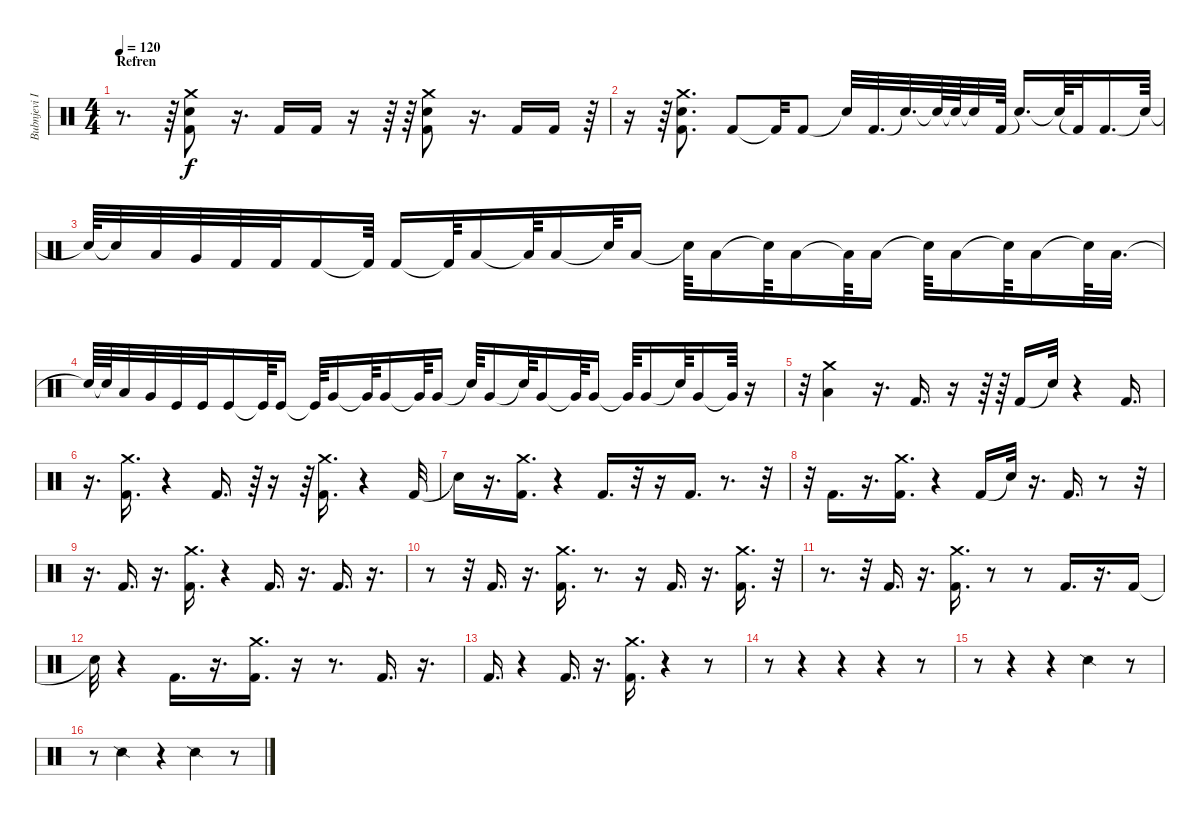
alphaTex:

\track ("Bubnjevi Ipe Ivandic" "Bubnjevi I") {instrument percussion}
\staff {score}
\articulation defaults
\ts (4 4)
\section ("" "Refren")
\tempo 120
\clef neutral
\ks c
r.8{d dy f} r.64 ("Kick (hit) 2" "Snare (hit) 2" "Crash medium (hit)").8 r.16{d} "Kick (hit) 2".16 "Kick (hit) 2".16 r.16 r.64 r.64 ("Kick (hit) 2" "Snare (hit) 2" "Crash medium (hit)").8 r.16{d} "Kick (hit) 2".16 "Kick (hit) 2".16 r.64 |
r.16 r.64 ("Kick (hit) 2" "Snare (hit) 2" "Crash medium (hit)").8{d} "Kick (hit) 2".8 "Kick (hit) 2"{t}.32 "Kick (hit) 2".8 "Snare (hit)"{t}.32 "Kick (hit) 2".32{d} "Snare (hit)"{t}.32{d} "Snare (hit)"{t}.64 "Snare (hit)"{t}.64 "Snare (hit)"{t}.32 "Kick (hit) 2".64 "Snare (hit)"{t}.16{d} "Snare (hit)"{t}.64 "Kick (hit) 2"{t}.32 "Kick (hit) 2".16{d} "Snare (hit)"{t}.64 |
"Snare (hit)"{t}.64 "Snare (hit)"{t}.32 "Low Tom (hit)".32 "Very Low Tom (hit)".32 "Kick (hit) 2".32 "Kick (hit) 2".32 "Kick (hit) 2".16 "Kick (hit) 2"{t}.64 "Kick (hit) 2".16 "Kick (hit) 2"{t}.64 "Low Tom (hit)".16 "Low Tom (hit)"{t}.64 "Low Tom (hit)".16 "Snare (hit)"{t}.64 "Low Tom (hit)".16 "Snare (hit)"{t}.64 "Low Tom (hit)".16 "Snare (hit)"{t}.64 "Low Tom (hit)".16 "Low Tom (hit)"{t}.64 "Low Tom (hit)".16 "Snare (hit)"{t}.64 "Low Tom (hit)".16 "Snare (hit)"{t}.64 "Low Tom (hit)".16 "Snare (hit)"{t}.64 "Low Tom (hit)".32{d} |
"Snare (hit)"{t}.64 "Snare (hit)"{t}.64 "Low Floor Tom (hit)".32 "Very Low Tom (hit)".32 "Kick (hit)".32 "Kick (hit)".32 "Kick (hit)".16 "Kick (hit)"{t}.64 "Kick (hit)".16 "Kick (hit)"{t}.64 "Very Low Tom (hit)".16 "Very Low Tom (hit)"{t}.64 "Very Low Tom (hit)".16 "Very Low Tom (hit)"{t}.64 "Very Low Tom (hit)".16 "Snare (hit)"{t}.64 "Very Low Tom (hit)".16 "Snare (hit)"{t}.64 "Very Low Tom (hit)".16 "Very Low Tom (hit)"{t}.64 "Very Low Tom (hit)".16 "Very Low Tom (hit)"{t}.64 "Very Low Tom (hit)".16 "Snare (hit)"{t}.64 "Very Low Tom (hit)".16 "Very Low Tom (hit)"{t}.64 r.16 |
r.32 ("Low Tom (hit)" "Crash medium (hit)").4 r.16{d} "Kick (hit) 2".16{d} r.16 r.64 r.64 "Kick (hit) 2".16 "Snare (hit)"{t}.32 r.4 "Kick (hit) 2".16{d} |
r.16{d} ("Kick (hit) 2" "Crash medium (hit)").16{d} r.4 "Kick (hit) 2".16{d} r.64 r.16 r.64 ("Kick (hit) 2" "Crash medium (hit)").16{d} r.4 "Kick (hit) 2".32 |
"Snare (hit)"{t}.16 r.16{d} ("Kick (hit) 2" "Crash medium (hit)").16{d} r.4 "Kick (hit) 2".16{d} r.32 r.16 "Kick (hit) 2".16{d} r.8{d} r.32 |
r.32 "Kick (hit) 2".16{d} r.16{d} ("Kick (hit) 2" "Crash medium (hit)").16{d} r.4 "Kick (hit) 2".16 "Snare (hit)"{t}.32 r.16{d} "Kick (hit) 2".16{d} r.8 r.32 |
r.16{d} "Kick (hit) 2".16{d} r.16{d} ("Kick (hit) 2" "Crash medium (hit)").16{d} r.4 "Kick (hit) 2".16{d} r.16{d} "Kick (hit) 2".16{d} r.16{d} |
r.8 r.32 "Kick (hit) 2".16{d} r.16{d} ("Kick (hit) 2" "Crash medium (hit)").16{d} r.8{d} r.16 "Kick (hit) 2".16{d} r.16{d} ("Kick (hit) 2" "Crash medium (hit)").16{d} r.32 |
r.8{d} r.32 "Kick (hit) 2".16{d} r.16{d} ("Kick (hit) 2" "Crash medium (hit)").16{d} r.8 r.8 "Kick (hit) 2".16{d} r.16{d} "Kick (hit) 2".16 |
"Snare (hit)"{t}.32 r.4 "Kick (hit) 2".16{d} r.16{d} ("Kick (hit) 2" "Crash medium (hit)").16{d} r.16 r.8{d} "Kick (hit) 2".16{d} r.16{d} |
"Kick (hit) 2".16{d} r.4 "Kick (hit) 2".16{d} r.16{d} ("Kick (hit) 2" "Crash medium (hit)").16{d} r.4 r.8 |
r.8 r.4 r.4 r.4 r.8 |
r.8 r.4 r.4 "Snare (side stick) 2".4 r.8 |
r.8 "Snare (side stick) 2".4 r.4 "Snare (side stick) 2".4 r.8
